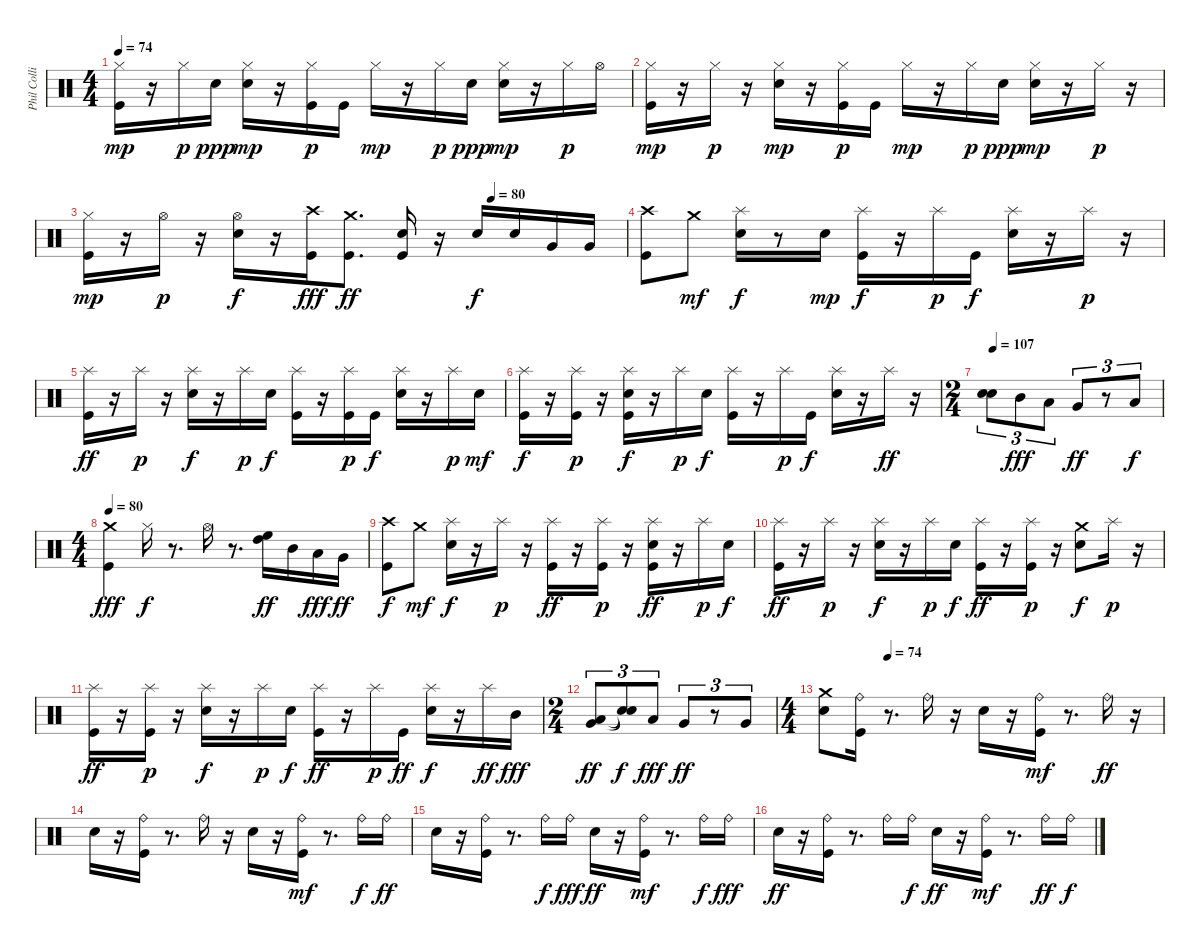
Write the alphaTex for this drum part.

\track ("Phil Collins" "Phil Colli") {instrument percussion}
\staff {score}
\articulation defaults
\ts (4 4)
\tempo 74
\clef neutral
\ks c
("Kick (hit)" "Hi-Hat (closed)").16{dy mp} r.16 "Hi-Hat (closed)".16{dy p} "Snare (hit) 2".16{dy ppp} ("Hi-Hat (closed)" "Snare (hit) 2").16{dy mp} r.16 ("Kick (hit)" "Hi-Hat (closed)").16{dy p} "Kick (hit)".16 "Hi-Hat (closed)".16{dy mp} r.16 "Hi-Hat (closed)".16{dy p} "Snare (hit) 2".16{dy ppp} ("Hi-Hat (closed)" "Snare (hit) 2").16{dy mp} r.16 "Hi-Hat (closed)".16{dy p} "Hi-Hat (open)".16 |
("Kick (hit)" "Hi-Hat (closed)").16{dy mp} r.16 "Hi-Hat (closed)".16{dy p} r.16 ("Snare (hit) 2" "Hi-Hat (closed)").16{dy mp} r.16 ("Kick (hit)" "Hi-Hat (closed)").16{dy p} "Kick (hit)".16 "Hi-Hat (closed)".16{dy mp} r.16 "Hi-Hat (closed)".16{dy p} "Snare (hit) 2".16{dy ppp} ("Hi-Hat (closed)" "Snare (hit) 2").16{dy mp} r.16 "Hi-Hat (closed)".16{dy p} r.16 |
\tempo (80 0.75)
("Kick (hit)" "Hi-Hat (closed)").16{dy mp} r.16 "Hi-Hat (open)".16{dy p} r.16 ("Snare (hit) 2" "Hi-Hat (open)").16{dy f} r.16 ("Crash high (hit)" "Kick (hit)").16{dy fff} ("Crash medium (hit)" "Kick (hit)").8{d dy ff} ("Snare (hit) 2" "Kick (hit)").16 r.16 "Snare (hit) 2".16{dy f} "Snare (hit) 2".16 "Very Low Tom (hit)".16 "Very Low Tom (hit)".16 |
("Crash high (hit)" "Kick (hit)").8 "Crash medium (hit)".8{dy mf} ("Snare (hit) 2" "Splash (hit)").16{dy f} r.8 "Snare (hit) 2".16{dy mp} ("Kick (hit)" "Splash (hit)").16{dy f} r.16 "Splash (hit)".16{dy p} "Kick (hit)".16{dy f} ("Snare (hit) 2" "Splash (hit)").16 r.16 "Splash (hit)".16{dy p} r.16 |
("Kick (hit)" "Splash (hit)").16{dy ff} r.16 "Splash (hit)".16{dy p} r.16 ("Snare (hit) 2" "Splash (hit)").16{dy f} r.16 "Splash (hit)".16{dy p} "Snare (hit) 2".16{dy f} ("Kick (hit)" "Splash (hit)").16 r.16 ("Kick (hit)" "Splash (hit)").16{dy p} "Kick (hit)".16{dy f} ("Snare (hit) 2" "Splash (hit)").16 r.16 "Splash (hit)".16{dy p} "Snare (hit) 2".16{dy mf} |
("Kick (hit)" "Splash (hit)").16{dy f} r.16 ("Kick (hit)" "Splash (hit)").16{dy p} r.16 ("Kick (hit)" "Snare (hit) 2" "Splash (hit)").16{dy f} r.16 "Splash (hit)".16{dy p} "Snare (hit) 2".16{dy f} ("Kick (hit)" "Splash (hit)").16 r.16 "Splash (hit)".16{dy p} "Kick (hit)".16{dy f} ("Snare (hit) 2" "Splash (hit)").16 r.16 "Splash (hit)".16{dy ff} r.16 |
\ts (2 4)
\tempo (107 0.041666666666666664)
("Snare (hit) 2" "Electric Snare (hit)").8{tu (3 2)} "Mid Tom (hit)".8{tu (3 2) dy fff} "Low Tom (hit)".8{tu (3 2)} "Very Low Tom (hit)".8{tu (3 2) dy ff} r.8{tu (3 2)} "Low Floor Tom (hit)".8{tu (3 2) dy f} |
\ts (4 4)
\tempo 80
("Crash medium (hit)" "Kick (hit)").4{dy fff} "Hi-Hat (closed)".16{dy f} r.8{d} "Hi-Hat (open)".16 r.8{d} ("High Floor Tom (hit)" "High Tom (hit)").16{dy ff} "Mid Tom (hit)".16 "Low Tom (hit)".16{dy fff} "Very Low Tom (hit)".16{dy ff} |
("Crash high (hit)" "Kick (hit)").8{dy f} "Crash medium (hit)".8{dy mf} ("Snare (hit) 2" "Splash (hit)").16{dy f} r.16 "Splash (hit)".16{dy p} r.16 ("Kick (hit)" "Splash (hit)").16{dy ff} r.16 ("Kick (hit)" "Splash (hit)").16{dy p} r.16 ("Kick (hit)" "Snare (hit) 2" "Splash (hit)").16{dy ff} r.16 "Splash (hit)".16{dy p} "Snare (hit) 2".16{dy f} |
("Kick (hit)" "Splash (hit)").16{dy ff} r.16 "Splash (hit)".16{dy p} r.16 ("Snare (hit) 2" "Splash (hit)").16{dy f} r.16 "Splash (hit)".16{dy p} "Snare (hit) 2".16{dy f} ("Kick (hit)" "Splash (hit)").16{dy ff} r.16 ("Kick (hit)" "Splash (hit)").16{dy p} r.16 ("Crash medium (hit)" "Snare (hit) 2").8{dy f} "Splash (hit)".16{dy p} r.16 |
("Kick (hit)" "Splash (hit)").16{dy ff} r.16 ("Kick (hit)" "Splash (hit)").16{dy p} r.16 ("Snare (hit) 2" "Splash (hit)").16{dy f} r.16 "Splash (hit)".16{dy p} "Snare (hit) 2".16{dy f} ("Kick (hit)" "Splash (hit)").16{dy ff} r.16 "Splash (hit)".16{dy p} "Kick (hit)".16{dy ff} ("Snare (hit) 2" "Splash (hit)").16{dy f} r.16 "Splash (hit)".16{dy ff} "Mid Tom (hit)".16{dy fff} |
\ts (2 4)
("Low Tom (hit)" "Very Low Tom (hit)").8{tu (3 2) dy ff} ("Snare (hit)"{t} "Snare (hit)"{t}).8{tu (3 2) dy f} "Low Tom (hit)".8{tu (3 2) dy fff} "Very Low Tom (hit)".8{tu (3 2) dy ff} r.8{tu (3 2)} "Very Low Tom (hit)".8{tu (3 2)} |
\ts (4 4)
\tempo (74 0.1875)
("Crash medium (hit)" "Snare (hit) 2").8 ("Kick (hit)" "Ride (bell)").16 r.8{d} "Ride (bell)".16 r.16 "Snare (hit) 2".16 r.16 ("Kick (hit)" "Ride (bell)").16{dy mf} r.8{d} "Ride (bell)".16{dy ff} r.16 |
"Snare (hit) 2".16 r.16 ("Kick (hit)" "Ride (bell)").16 r.8{d} "Ride (bell)".16 r.16 "Snare (hit) 2".16 r.16 ("Kick (hit)" "Ride (bell)").16{dy mf} r.8{d} "Ride (bell)".16{dy f} "Ride (bell)".16{dy ff} |
"Snare (hit) 2".16 r.16 ("Kick (hit)" "Ride (bell)").16 r.8{d} "Ride (bell)".16{dy f} "Ride (bell)".16{dy fff} "Snare (hit) 2".16{dy ff} r.16 ("Kick (hit)" "Ride (bell)").16{dy mf} r.8{d} "Ride (bell)".16{dy f} "Ride (bell)".16{dy fff} |
"Snare (hit) 2".16{dy ff} r.16 ("Kick (hit)" "Ride (bell)").16 r.8{d} "Ride (bell)".16 "Ride (bell)".16{dy f} "Snare (hit) 2".16{dy ff} r.16 ("Kick (hit)" "Ride (bell)").16{dy mf} r.8{d} "Ride (bell)".16{dy ff} "Ride (bell)".16{dy f}
